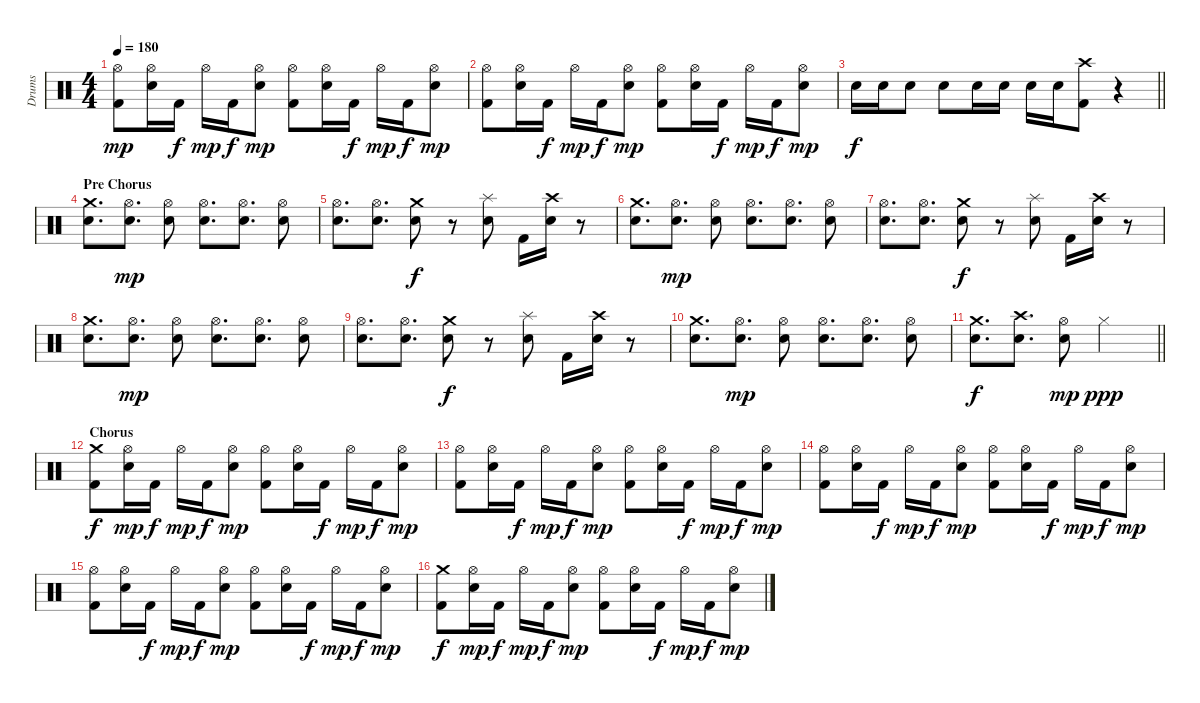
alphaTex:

\track ("Drums" "Drums") {instrument percussion}
\staff {score}
\articulation defaults
\ts (4 4)
\tempo 180
\clef neutral
\ks c
("Hi-Hat (open)" "Kick (hit) 2").8{dy mp} ("Hi-Hat (open)" "Snare (hit) 2").16 "Kick (hit) 2".16{dy f} "Hi-Hat (open)".16{dy mp} "Kick (hit) 2".16{dy f} ("Hi-Hat (open)" "Snare (hit) 2").8{dy mp} ("Hi-Hat (open)" "Kick (hit) 2").8 ("Hi-Hat (open)" "Snare (hit) 2").16 "Kick (hit) 2".16{dy f} "Hi-Hat (open)".16{dy mp} "Kick (hit) 2".16{dy f} ("Hi-Hat (open)" "Snare (hit) 2").8{dy mp} |
("Hi-Hat (open)" "Kick (hit) 2").8 ("Hi-Hat (open)" "Snare (hit) 2").16 "Kick (hit) 2".16{dy f} "Hi-Hat (open)".16{dy mp} "Kick (hit) 2".16{dy f} ("Hi-Hat (open)" "Snare (hit) 2").8{dy mp} ("Hi-Hat (open)" "Kick (hit) 2").8 ("Hi-Hat (open)" "Snare (hit) 2").16 "Kick (hit) 2".16{dy f} "Hi-Hat (open)".16{dy mp} "Kick (hit) 2".16{dy f} ("Hi-Hat (open)" "Snare (hit) 2").8{dy mp} |
\barLineRight lightlight "Snare (hit) 2".16{dy f} "Snare (hit) 2".16 "Snare (hit) 2".8 "Snare (hit) 2".8 "Snare (hit) 2".16 "Snare (hit) 2".16 "Snare (hit) 2".16 "Snare (hit) 2".16
("Crash high (hit)" "Kick (hit) 2").8 r.4 |
\section ("" "Pre Chorus")
("Crash medium (hit)" "Snare (hit) 2").8{d} ("Hi-Hat (open)" "Snare (hit) 2").8{d dy mp} ("Hi-Hat (open)" "Snare (hit) 2").8 ("Hi-Hat (open)" "Snare (hit) 2").8{d} ("Hi-Hat (open)" "Snare (hit) 2").8{d} ("Hi-Hat (open)" "Snare (hit) 2").8 |
("Hi-Hat (open)" "Snare (hit) 2").8{d} ("Hi-Hat (open)" "Snare (hit) 2").8{d} ("Crash medium (hit)" "Snare (hit) 2").8{dy f} r.8 ("Splash (hit)" "Snare (hit) 2").8 "Kick (hit) 2".16 ("Crash high (hit)" "Snare (hit) 2").16 r.8 |
("Crash medium (hit)" "Snare (hit) 2").8{d} ("Hi-Hat (open)" "Snare (hit) 2").8{d dy mp} ("Hi-Hat (open)" "Snare (hit) 2").8 ("Hi-Hat (open)" "Snare (hit) 2").8{d} ("Hi-Hat (open)" "Snare (hit) 2").8{d} ("Hi-Hat (open)" "Snare (hit) 2").8 |
("Hi-Hat (open)" "Snare (hit) 2").8{d} ("Hi-Hat (open)" "Snare (hit) 2").8{d} ("Crash medium (hit)" "Snare (hit) 2").8{dy f} r.8 ("Splash (hit)" "Snare (hit) 2").8 "Kick (hit) 2".16 ("Crash high (hit)" "Snare (hit) 2").16 r.8 |
("Crash medium (hit)" "Snare (hit) 2").8{d} ("Hi-Hat (open)" "Snare (hit) 2").8{d dy mp} ("Hi-Hat (open)" "Snare (hit) 2").8 ("Hi-Hat (open)" "Snare (hit) 2").8{d} ("Hi-Hat (open)" "Snare (hit) 2").8{d} ("Hi-Hat (open)" "Snare (hit) 2").8 |
("Hi-Hat (open)" "Snare (hit) 2").8{d} ("Hi-Hat (open)" "Snare (hit) 2").8{d} ("Crash medium (hit)" "Snare (hit) 2").8{dy f} r.8 ("Splash (hit)" "Snare (hit) 2").8 "Kick (hit) 2".16 ("Crash high (hit)" "Snare (hit) 2").16 r.8 |
("Crash medium (hit)" "Snare (hit) 2").8{d} ("Hi-Hat (open)" "Snare (hit) 2").8{d dy mp} ("Hi-Hat (open)" "Snare (hit) 2").8 ("Hi-Hat (open)" "Snare (hit) 2").8{d} ("Hi-Hat (open)" "Snare (hit) 2").8{d} ("Hi-Hat (open)" "Snare (hit) 2").8 |
\barLineRight lightlight
("Crash medium (hit)" "Snare (hit) 2").8{d dy f} ("Crash high (hit)" "Snare (hit) 2").8{d} ("Hi-Hat (open)" "Snare (hit) 2").8{dy mp} "Hi-Hat (closed)".2{dy ppp} |
\section ("" "Chorus")
("Crash medium (hit)" "Kick (hit) 2").8{dy f} ("Hi-Hat (open)" "Snare (hit) 2").16{dy mp} "Kick (hit) 2".16{dy f} "Hi-Hat (open)".16{dy mp} "Kick (hit) 2".16{dy f} ("Hi-Hat (open)" "Snare (hit) 2").8{dy mp} ("Hi-Hat (open)" "Kick (hit) 2").8 ("Hi-Hat (open)" "Snare (hit) 2").16 "Kick (hit) 2".16{dy f} "Hi-Hat (open)".16{dy mp} "Kick (hit) 2".16{dy f} ("Hi-Hat (open)" "Snare (hit) 2").8{dy mp} |
("Hi-Hat (open)" "Kick (hit) 2").8 ("Hi-Hat (open)" "Snare (hit) 2").16 "Kick (hit) 2".16{dy f} "Hi-Hat (open)".16{dy mp} "Kick (hit) 2".16{dy f} ("Hi-Hat (open)" "Snare (hit) 2").8{dy mp} ("Hi-Hat (open)" "Kick (hit) 2").8 ("Hi-Hat (open)" "Snare (hit) 2").16 "Kick (hit) 2".16{dy f} "Hi-Hat (open)".16{dy mp} "Kick (hit) 2".16{dy f} ("Hi-Hat (open)" "Snare (hit) 2").8{dy mp} |
("Hi-Hat (open)" "Kick (hit) 2").8 ("Hi-Hat (open)" "Snare (hit) 2").16 "Kick (hit) 2".16{dy f} "Hi-Hat (open)".16{dy mp} "Kick (hit) 2".16{dy f} ("Hi-Hat (open)" "Snare (hit) 2").8{dy mp} ("Hi-Hat (open)" "Kick (hit) 2").8 ("Hi-Hat (open)" "Snare (hit) 2").16 "Kick (hit) 2".16{dy f} "Hi-Hat (open)".16{dy mp} "Kick (hit) 2".16{dy f} ("Hi-Hat (open)" "Snare (hit) 2").8{dy mp} |
("Hi-Hat (open)" "Kick (hit) 2").8 ("Hi-Hat (open)" "Snare (hit) 2").16 "Kick (hit) 2".16{dy f} "Hi-Hat (open)".16{dy mp} "Kick (hit) 2".16{dy f} ("Hi-Hat (open)" "Snare (hit) 2").8{dy mp} ("Hi-Hat (open)" "Kick (hit) 2").8 ("Hi-Hat (open)" "Snare (hit) 2").16 "Kick (hit) 2".16{dy f} "Hi-Hat (open)".16{dy mp} "Kick (hit) 2".16{dy f} ("Hi-Hat (open)" "Snare (hit) 2").8{dy mp} |
("Crash medium (hit)" "Kick (hit) 2").8{dy f} ("Hi-Hat (open)" "Snare (hit) 2").16{dy mp} "Kick (hit) 2".16{dy f} "Hi-Hat (open)".16{dy mp} "Kick (hit) 2".16{dy f} ("Hi-Hat (open)" "Snare (hit) 2").8{dy mp} ("Hi-Hat (open)" "Kick (hit) 2").8 ("Hi-Hat (open)" "Snare (hit) 2").16 "Kick (hit) 2".16{dy f} "Hi-Hat (open)".16{dy mp} "Kick (hit) 2".16{dy f} ("Hi-Hat (open)" "Snare (hit) 2").8{dy mp}
